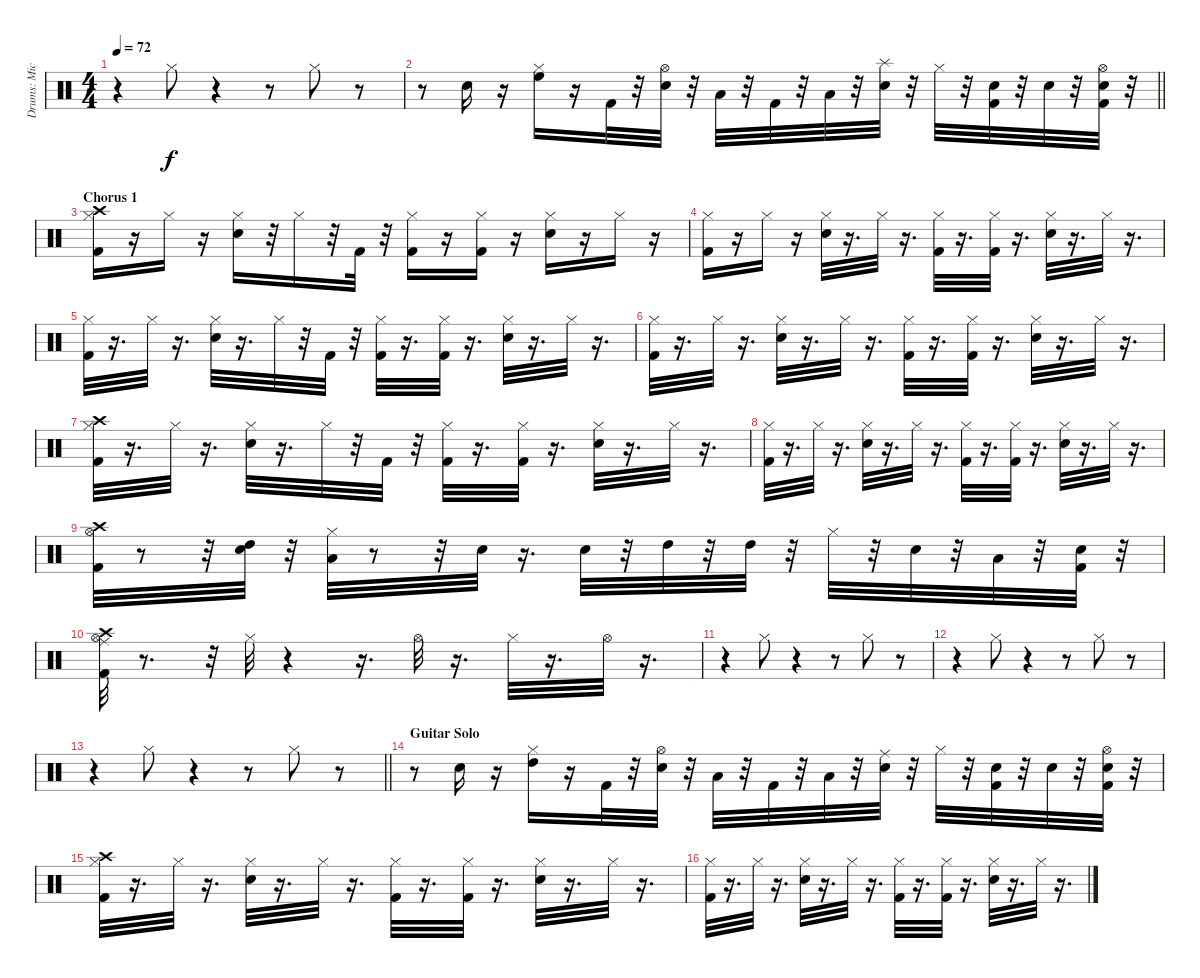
\track ("Drums: Michael Botts" "Drums: Mic") {instrument percussion}
\staff {score}
\articulation defaults
\ts (4 4)
\tempo 72
\clef neutral
\ks c
r.4{dy f} "Hi-Hat (closed)".8 r.4 r.8 "Hi-Hat (closed)".8 r.8 |
\barLineRight lightlight
r.8 "Snare (hit) 2".16 r.16 ("Hi-Hat (closed)" "High Floor Tom (hit)").16 r.16 "Kick (hit) 2".32 r.32 ("Hi-Hat (open)" "Snare (hit) 2").32 r.32 "Low Floor Tom (hit)".32 r.32 "Kick (hit) 2".32 r.32 "Low Tom (hit)".32 r.32 ("Splash (hit)" "Snare (hit) 2").32 r.32 "Hi-Hat (closed)".32 r.32 ("Snare (hit) 2" "Kick (hit) 2").32 r.32 "Snare (hit) 2".32 r.32 ("Hi-Hat (open)" "Snare (hit) 2" "Kick (hit) 2").32 r.32 |
\section ("" "Chorus 1")
("Kick (hit) 2" "Hi-Hat (closed)" "Crash high (hit)").16 r.16 "Hi-Hat (closed)".16 r.16 ("Snare (hit) 2" "Hi-Hat (closed)").16 r.32 "Hi-Hat (closed)".16 r.32 "Kick (hit) 2".32 r.32 ("Kick (hit) 2" "Hi-Hat (closed)").16 r.16 ("Kick (hit) 2" "Hi-Hat (closed)").16 r.16 ("Snare (hit) 2" "Hi-Hat (closed)").16 r.16 "Hi-Hat (closed)".16 r.16 |
("Kick (hit) 2" "Hi-Hat (closed)").16 r.16 "Hi-Hat (closed)".16 r.16 ("Snare (hit) 2" "Hi-Hat (closed)").32 r.16{d} "Hi-Hat (closed)".32 r.16{d} ("Kick (hit) 2" "Hi-Hat (closed)").32 r.16{d} ("Kick (hit) 2" "Hi-Hat (closed)").32 r.16{d} ("Snare (hit) 2" "Hi-Hat (closed)").32 r.16{d} "Hi-Hat (closed)".32 r.16{d} |
("Kick (hit) 2" "Hi-Hat (closed)").32 r.16{d} "Hi-Hat (closed)".32 r.16{d} ("Snare (hit) 2" "Hi-Hat (closed)").32 r.16{d} "Hi-Hat (closed)".32 r.32 "Kick (hit) 2".32 r.32 ("Kick (hit) 2" "Hi-Hat (closed)").32 r.16{d} ("Kick (hit) 2" "Hi-Hat (closed)").32 r.16{d} ("Snare (hit) 2" "Hi-Hat (closed)").32 r.16{d} "Hi-Hat (closed)".32 r.16{d} |
("Kick (hit) 2" "Hi-Hat (closed)").32 r.16{d} "Hi-Hat (closed)".32 r.16{d} ("Snare (hit) 2" "Hi-Hat (closed)").32 r.16{d} "Hi-Hat (closed)".32 r.16{d} ("Kick (hit) 2" "Hi-Hat (closed)").32 r.16{d} ("Kick (hit) 2" "Hi-Hat (closed)").32 r.16{d} ("Snare (hit) 2" "Hi-Hat (closed)").32 r.16{d} "Hi-Hat (closed)".32 r.16{d} |
("Kick (hit) 2" "Hi-Hat (closed)" "Crash high (hit)").32 r.16{d} "Hi-Hat (closed)".32 r.16{d} ("Snare (hit) 2" "Hi-Hat (closed)").32 r.16{d} "Hi-Hat (closed)".32 r.32 "Kick (hit) 2".32 r.32 ("Kick (hit) 2" "Hi-Hat (closed)").32 r.16{d} ("Kick (hit) 2" "Hi-Hat (closed)").32 r.16{d} ("Snare (hit) 2" "Hi-Hat (closed)").32 r.16{d} "Hi-Hat (closed)".32 r.16{d} |
("Kick (hit) 2" "Hi-Hat (closed)").32 r.16{d} "Hi-Hat (closed)".32 r.16{d} ("Snare (hit) 2" "Hi-Hat (closed)").32 r.16{d} "Hi-Hat (closed)".32 r.16{d} ("Kick (hit) 2" "Hi-Hat (closed)").32 r.16{d} ("Kick (hit) 2" "Hi-Hat (closed)").32 r.16{d} ("Snare (hit) 2" "Hi-Hat (closed)").32 r.16{d} "Hi-Hat (closed)".32 r.16{d} |
("Kick (hit) 2" "Crash high (hit)" "Hi-Hat (open)").32 r.8 r.32 ("Snare (hit) 2" "High Tom (hit)").32 r.32 ("Hi-Hat (closed)" "Low Tom (hit)").32 r.8 r.32 "Snare (hit) 2".32 r.16{d} "Snare (hit) 2".32 r.32 "High Tom (hit)".32 r.32 "High Tom (hit)".32 r.32 "Hi-Hat (closed)".32 r.32 "Snare (hit) 2".32 r.32 "Low Floor Tom (hit)".32 r.32 ("Kick (hit) 2" "Snare (hit) 2").32 r.32 |
("Kick (hit) 2" "Crash high (hit)" "Ride (middle)" "Hi-Hat (open)").32 r.8{d} r.32 "Hi-Hat (closed)".32 r.4 r.16{d} "Hi-Hat (open)".32 r.16{d} "Hi-Hat (closed)".32 r.16{d} "Hi-Hat (open)".32 r.16{d} |
r.4 "Hi-Hat (closed)".8 r.4 r.8 "Hi-Hat (closed)".8 r.8 |
r.4 "Hi-Hat (closed)".8 r.4 r.8 "Hi-Hat (closed)".8 r.8 |
\barLineRight lightlight
r.4 "Hi-Hat (closed)".8 r.4 r.8 "Hi-Hat (closed)".8 r.8 |
\section ("" "Guitar Solo")
r.8 "Snare (hit) 2".16 r.16 ("Hi-Hat (closed)" "High Tom (hit)").16 r.16 "Kick (hit) 2".32 r.32 ("Snare (hit) 2" "Hi-Hat (open)").32 r.32 "Low Floor Tom (hit)".32 r.32 "Kick (hit) 2".32 r.32 "Low Tom (hit)".32 r.32 ("Snare (hit) 2" "Ride (middle)").32 r.32 "Hi-Hat (closed)".32 r.32 ("Kick (hit) 2" "Snare (hit) 2").32 r.32 "Snare (hit) 2".32 r.32 ("Kick (hit) 2" "Snare (hit) 2" "Hi-Hat (open)").32 r.32 |
("Kick (hit) 2" "Hi-Hat (closed)" "Crash high (hit)").32 r.16{d} "Hi-Hat (closed)".32 r.16{d} ("Snare (hit) 2" "Hi-Hat (closed)").32 r.16{d} "Hi-Hat (closed)".32 r.16{d} ("Kick (hit) 2" "Hi-Hat (closed)").32 r.16{d} ("Kick (hit) 2" "Hi-Hat (closed)").32 r.16{d} ("Snare (hit) 2" "Hi-Hat (closed)").32 r.16{d} "Hi-Hat (closed)".32 r.16{d} |
("Kick (hit) 2" "Hi-Hat (closed)").32 r.16{d} "Hi-Hat (closed)".32 r.16{d} ("Snare (hit) 2" "Hi-Hat (closed)").32 r.16{d} "Hi-Hat (closed)".32 r.16{d} ("Kick (hit) 2" "Hi-Hat (closed)").32 r.16{d} ("Kick (hit) 2" "Hi-Hat (closed)").32 r.16{d} ("Snare (hit) 2" "Hi-Hat (closed)").32 r.16{d} "Hi-Hat (closed)".32 r.16{d}
